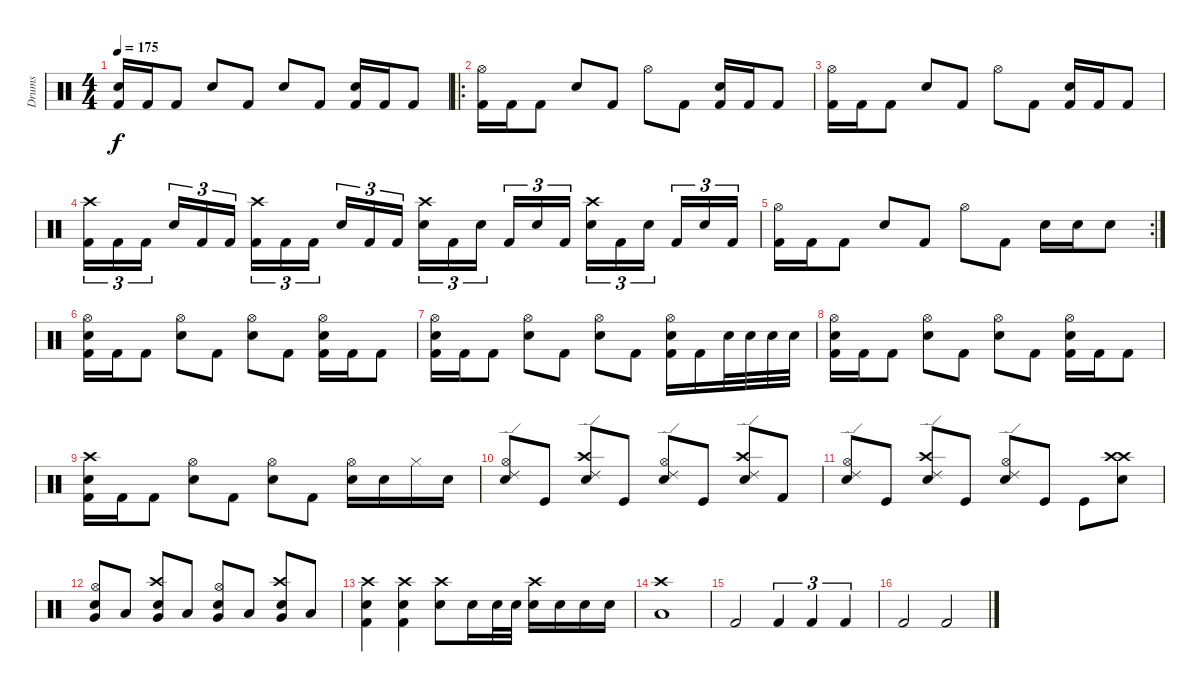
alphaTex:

\track ("Drums" "Drums") {instrument percussion}
\staff {score}
\articulation defaults
\ts (4 4)
\tempo 175
\clef neutral
\ks c
("Electric Snare (hit)" "Kick (hit) 2").16{dy f} "Kick (hit) 2".16 "Kick (hit) 2".8 "Electric Snare (hit)".8 "Kick (hit) 2".8 "Electric Snare (hit)".8 "Kick (hit) 2".8 ("Electric Snare (hit)" "Kick (hit) 2").16 "Kick (hit) 2".16 "Kick (hit) 2".8 |
\ro
("Hi-Hat (open)" "Kick (hit) 2").16 "Kick (hit) 2".16 "Kick (hit) 2".8 "Electric Snare (hit)".8 "Kick (hit) 2".8 "Hi-Hat (open)".8 "Kick (hit) 2".8 ("Electric Snare (hit)" "Kick (hit) 2").16 "Kick (hit) 2".16 "Kick (hit) 2".8 |
("Hi-Hat (open)" "Kick (hit) 2").16 "Kick (hit) 2".16 "Kick (hit) 2".8 "Electric Snare (hit)".8 "Kick (hit) 2".8 "Hi-Hat (open)".8 "Kick (hit) 2".8 ("Electric Snare (hit)" "Kick (hit) 2").16 "Kick (hit) 2".16 "Kick (hit) 2".8 |
("Crash high (hit)" "Kick (hit) 2").16{tu (3 2)} "Kick (hit) 2".16{tu (3 2)} "Kick (hit) 2".16{tu (3 2)} "Electric Snare (hit)".16{tu (3 2)} "Kick (hit) 2".16{tu (3 2)} "Kick (hit) 2".16{tu (3 2)} ("Crash high (hit)" "Kick (hit) 2").16{tu (3 2)} "Kick (hit) 2".16{tu (3 2)} "Kick (hit) 2".16{tu (3 2)} "Electric Snare (hit)".16{tu (3 2)} "Kick (hit) 2".16{tu (3 2)} "Kick (hit) 2".16{tu (3 2)} ("Crash high (hit)" "Electric Snare (hit)").16{tu (3 2)} "Kick (hit) 2".16{tu (3 2)} "Electric Snare (hit)".16{tu (3 2)} "Kick (hit) 2".16{tu (3 2)} "Electric Snare (hit)".16{tu (3 2)} "Kick (hit) 2".16{tu (3 2)} ("Crash high (hit)" "Electric Snare (hit)").16{tu (3 2)} "Kick (hit) 2".16{tu (3 2)} "Electric Snare (hit)".16{tu (3 2)} "Kick (hit) 2".16{tu (3 2)} "Electric Snare (hit)".16{tu (3 2)} "Kick (hit) 2".16{tu (3 2)} |
\rc 2
("Hi-Hat (open)" "Kick (hit) 2").16 "Kick (hit) 2".16 "Kick (hit) 2".8 "Electric Snare (hit)".8 "Kick (hit) 2".8 "Hi-Hat (open)".8 "Kick (hit) 2".8 "Electric Snare (hit)".16 "Electric Snare (hit)".16 "Electric Snare (hit)".8 |
("Electric Snare (hit)" "Kick (hit) 2" "Hi-Hat (open)").16 "Kick (hit) 2".16 "Kick (hit) 2".8 ("Electric Snare (hit)" "Hi-Hat (open)").8 "Kick (hit) 2".8 ("Electric Snare (hit)" "Hi-Hat (open)").8 "Kick (hit) 2".8 ("Electric Snare (hit)" "Kick (hit) 2" "Hi-Hat (open)").16 "Kick (hit) 2".16 "Kick (hit) 2".8 |
("Electric Snare (hit)" "Kick (hit) 2" "Hi-Hat (open)").16 "Kick (hit) 2".16 "Kick (hit) 2".8 ("Electric Snare (hit)" "Hi-Hat (open)").8 "Kick (hit) 2".8 ("Electric Snare (hit)" "Hi-Hat (open)").8 "Kick (hit) 2".8 ("Electric Snare (hit)" "Kick (hit) 2" "Hi-Hat (open)").16 "Kick (hit) 2".16 "Electric Snare (hit)".32 "Electric Snare (hit)".32 "Electric Snare (hit)".32 "Electric Snare (hit)".32 |
("Electric Snare (hit)" "Kick (hit) 2" "Hi-Hat (open)").16 "Kick (hit) 2".16 "Kick (hit) 2".8 ("Electric Snare (hit)" "Hi-Hat (open)").8 "Kick (hit) 2".8 ("Electric Snare (hit)" "Hi-Hat (open)").8 "Kick (hit) 2".8 ("Electric Snare (hit)" "Kick (hit) 2" "Hi-Hat (open)").16 "Kick (hit) 2".16 "Kick (hit) 2".8 |
("Electric Snare (hit)" "Kick (hit) 2" "Crash high (hit)").16 "Kick (hit) 2".16 "Kick (hit) 2".8 ("Electric Snare (hit)" "Hi-Hat (open)").8 "Kick (hit) 2".8 ("Electric Snare (hit)" "Hi-Hat (open)").8 "Kick (hit) 2".8 ("Electric Snare (hit)" "Hi-Hat (open)").16 "Electric Snare (hit)".16 "Hi-Hat (closed)".16 "Electric Snare (hit)".16 |
("Hi-Hat (open)" "Ride (edge) 2" "Electric Snare (hit)").8 "Kick (hit)".8 ("Crash high (hit)" "Ride (edge) 2" "Electric Snare (hit)").8 "Kick (hit)".8 ("Hi-Hat (open)" "Ride (edge) 2" "Electric Snare (hit)").8 "Kick (hit)".8 ("Crash high (hit)" "Ride (edge) 2" "Electric Snare (hit)").8 "Kick (hit) 2".8 |
("Hi-Hat (open)" "Ride (edge) 2" "Electric Snare (hit)").8 "Kick (hit)".8 ("Crash high (hit)" "Ride (edge) 2" "Electric Snare (hit)").8 "Kick (hit)".8 ("Hi-Hat (open)" "Ride (edge) 2" "Electric Snare (hit)").8 "Kick (hit)".8 "Kick (hit)".8 ("Crash high (hit)" "Crash high (hit)" "Electric Snare (hit)").8 |
("Hi-Hat (open)" "Electric Snare (hit)" "Very Low Tom (hit)").8 "Low Floor Tom (hit)".8 ("Crash high (hit)" "Electric Snare (hit)" "Very Low Tom (hit)").8 "Low Floor Tom (hit)".8 ("Hi-Hat (open)" "Electric Snare (hit)" "Very Low Tom (hit)").8 "Low Floor Tom (hit)".8 ("Crash high (hit)" "Electric Snare (hit)" "Very Low Tom (hit)").8 "Low Floor Tom (hit)".8 |
("Crash high (hit)" "Electric Snare (hit)" "Kick (hit) 2").4 ("Crash high (hit)" "Electric Snare (hit)" "Kick (hit) 2").4 ("Crash high (hit)" "Electric Snare (hit)").8 "Electric Snare (hit)".16 "Electric Snare (hit)".32 "Electric Snare (hit)".32 ("Crash high (hit)" "Electric Snare (hit)").16 "Electric Snare (hit)".16 "Electric Snare (hit)".16 "Electric Snare (hit)".16 |
("Crash high (hit)" "Low Floor Tom (hit)").1 |
"Kick (hit) 2".2 "Kick (hit) 2".4{tu (3 2)} "Kick (hit) 2".4{tu (3 2)} "Kick (hit) 2".4{tu (3 2)} |
"Kick (hit) 2".2 "Kick (hit) 2".2
